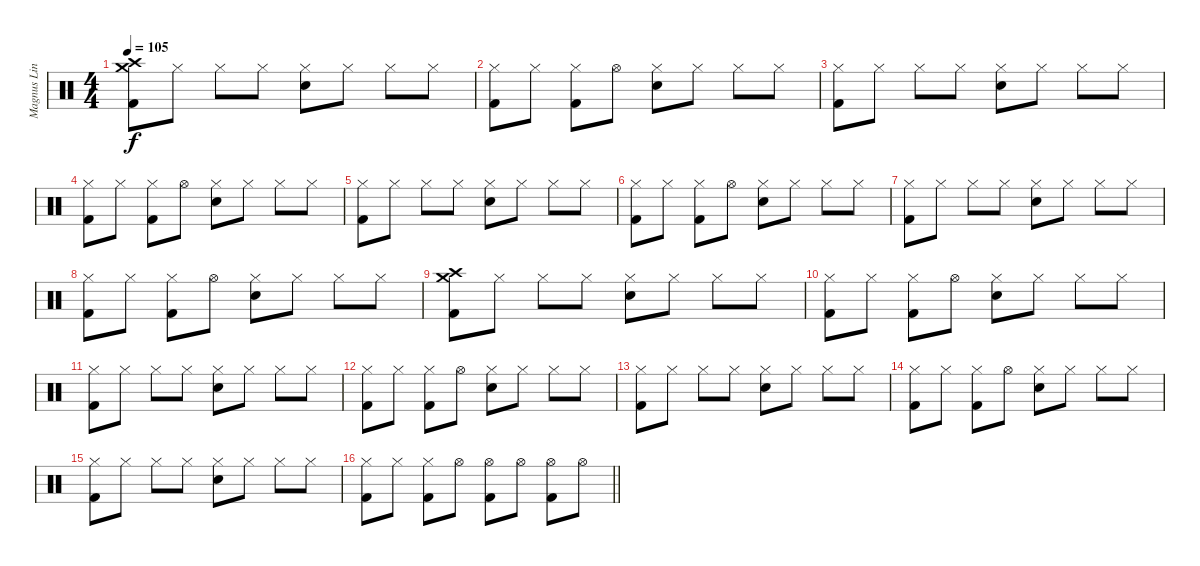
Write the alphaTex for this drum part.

\track ("Magnus Lindberg" "Magnus Lin") {instrument percussion}
\staff {score}
\articulation defaults
\ts (4 4)
\tempo 105
\clef neutral
\ks c
("Crash medium (hit)" "Crash high (hit)" "Kick (hit) 2").8{dy f} "Hi-Hat (closed)".8 "Hi-Hat (closed)".8 "Hi-Hat (closed)".8 ("Hi-Hat (closed)" "Snare (hit) 2").8 "Hi-Hat (closed)".8 "Hi-Hat (closed)".8 "Hi-Hat (closed)".8 |
("Hi-Hat (closed)" "Kick (hit) 2").8 "Hi-Hat (closed)".8 ("Hi-Hat (closed)" "Kick (hit) 2").8 "Hi-Hat (open)".8 ("Hi-Hat (closed)" "Snare (hit) 2").8 "Hi-Hat (closed)".8 "Hi-Hat (closed)".8 "Hi-Hat (closed)".8 |
("Hi-Hat (closed)" "Kick (hit) 2").8 "Hi-Hat (closed)".8 "Hi-Hat (closed)".8 "Hi-Hat (closed)".8 ("Hi-Hat (closed)" "Snare (hit) 2").8 "Hi-Hat (closed)".8 "Hi-Hat (closed)".8 "Hi-Hat (closed)".8 |
("Hi-Hat (closed)" "Kick (hit) 2").8 "Hi-Hat (closed)".8 ("Hi-Hat (closed)" "Kick (hit) 2").8 "Hi-Hat (open)".8 ("Hi-Hat (closed)" "Snare (hit) 2").8 "Hi-Hat (closed)".8 "Hi-Hat (closed)".8 "Hi-Hat (closed)".8 |
("Hi-Hat (closed)" "Kick (hit) 2").8 "Hi-Hat (closed)".8 "Hi-Hat (closed)".8 "Hi-Hat (closed)".8 ("Hi-Hat (closed)" "Snare (hit) 2").8 "Hi-Hat (closed)".8 "Hi-Hat (closed)".8 "Hi-Hat (closed)".8 |
("Hi-Hat (closed)" "Kick (hit) 2").8 "Hi-Hat (closed)".8 ("Hi-Hat (closed)" "Kick (hit) 2").8 "Hi-Hat (open)".8 ("Hi-Hat (closed)" "Snare (hit) 2").8 "Hi-Hat (closed)".8 "Hi-Hat (closed)".8 "Hi-Hat (closed)".8 |
("Hi-Hat (closed)" "Kick (hit) 2").8 "Hi-Hat (closed)".8 "Hi-Hat (closed)".8 "Hi-Hat (closed)".8 ("Hi-Hat (closed)" "Snare (hit) 2").8 "Hi-Hat (closed)".8 "Hi-Hat (closed)".8 "Hi-Hat (closed)".8 |
("Hi-Hat (closed)" "Kick (hit) 2").8 "Hi-Hat (closed)".8 ("Hi-Hat (closed)" "Kick (hit) 2").8 "Hi-Hat (open)".8 ("Hi-Hat (closed)" "Snare (hit) 2").8 "Hi-Hat (closed)".8 "Hi-Hat (closed)".8 "Hi-Hat (closed)".8 |
("Crash medium (hit)" "Crash high (hit)" "Kick (hit) 2").8 "Hi-Hat (closed)".8 "Hi-Hat (closed)".8 "Hi-Hat (closed)".8 ("Hi-Hat (closed)" "Snare (hit) 2").8 "Hi-Hat (closed)".8 "Hi-Hat (closed)".8 "Hi-Hat (closed)".8 |
("Hi-Hat (closed)" "Kick (hit) 2").8 "Hi-Hat (closed)".8 ("Hi-Hat (closed)" "Kick (hit) 2").8 "Hi-Hat (open)".8 ("Hi-Hat (closed)" "Snare (hit) 2").8 "Hi-Hat (closed)".8 "Hi-Hat (closed)".8 "Hi-Hat (closed)".8 |
("Hi-Hat (closed)" "Kick (hit) 2").8 "Hi-Hat (closed)".8 "Hi-Hat (closed)".8 "Hi-Hat (closed)".8 ("Hi-Hat (closed)" "Snare (hit) 2").8 "Hi-Hat (closed)".8 "Hi-Hat (closed)".8 "Hi-Hat (closed)".8 |
("Hi-Hat (closed)" "Kick (hit) 2").8 "Hi-Hat (closed)".8 ("Hi-Hat (closed)" "Kick (hit) 2").8 "Hi-Hat (open)".8 ("Hi-Hat (closed)" "Snare (hit) 2").8 "Hi-Hat (closed)".8 "Hi-Hat (closed)".8 "Hi-Hat (closed)".8 |
("Hi-Hat (closed)" "Kick (hit) 2").8 "Hi-Hat (closed)".8 "Hi-Hat (closed)".8 "Hi-Hat (closed)".8 ("Hi-Hat (closed)" "Snare (hit) 2").8 "Hi-Hat (closed)".8 "Hi-Hat (closed)".8 "Hi-Hat (closed)".8 |
("Hi-Hat (closed)" "Kick (hit) 2").8 "Hi-Hat (closed)".8 ("Hi-Hat (closed)" "Kick (hit) 2").8 "Hi-Hat (open)".8 ("Hi-Hat (closed)" "Snare (hit) 2").8 "Hi-Hat (closed)".8 "Hi-Hat (closed)".8 "Hi-Hat (closed)".8 |
("Hi-Hat (closed)" "Kick (hit) 2").8 "Hi-Hat (closed)".8 "Hi-Hat (closed)".8 "Hi-Hat (closed)".8 ("Hi-Hat (closed)" "Snare (hit) 2").8 "Hi-Hat (closed)".8 "Hi-Hat (closed)".8 "Hi-Hat (closed)".8 |
\barLineRight lightlight
("Hi-Hat (closed)" "Kick (hit) 2").8 "Hi-Hat (closed)".8 ("Hi-Hat (closed)" "Kick (hit) 2").8 "Hi-Hat (open)".8 ("Hi-Hat (open)" "Kick (hit) 2").8 "Hi-Hat (open)".8 ("Hi-Hat (open)" "Kick (hit) 2").8 "Hi-Hat (open)".8
